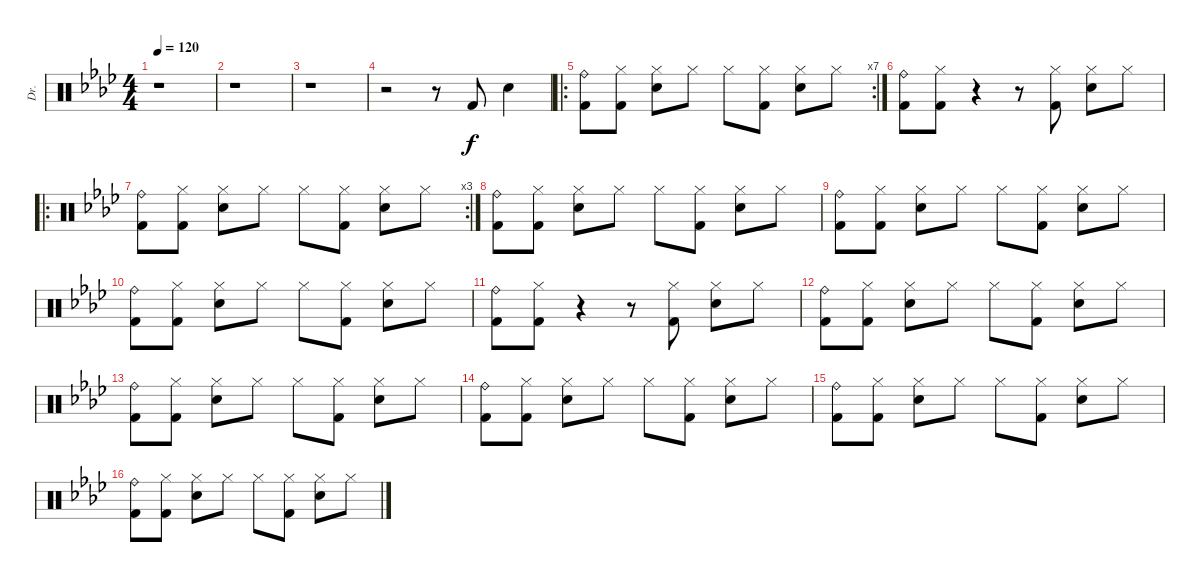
\track ("Dr." "Dr.") {instrument percussion}
\staff {score}
\articulation defaults
\ts (4 4)
\tempo 120
\clef neutral
\ks ab
r.1{dy f} |
r.1 |
r.1 |
r.2 r.8 "Kick (hit) 2".8 "Electric Snare (hit)".4 |
\ro
\rc 7
("Ride (bell)" "Kick (hit) 2").8 ("Hi-Hat (closed)" "Kick (hit) 2").8 ("Hi-Hat (closed)" "Electric Snare (hit)").8 "Hi-Hat (closed)".8 "Hi-Hat (closed)".8 ("Hi-Hat (closed)" "Kick (hit) 2").8 ("Hi-Hat (closed)" "Electric Snare (hit)").8 "Hi-Hat (closed)".8 |
("Ride (bell)" "Kick (hit) 2").8 ("Hi-Hat (closed)" "Kick (hit) 2").8 r.4 r.8 ("Hi-Hat (closed)" "Kick (hit) 2").8 ("Hi-Hat (closed)" "Electric Snare (hit)").8 "Hi-Hat (closed)".8 |
\ro
\rc 3
("Ride (bell)" "Kick (hit) 2").8 ("Hi-Hat (closed)" "Kick (hit) 2").8 ("Hi-Hat (closed)" "Electric Snare (hit)").8 "Hi-Hat (closed)".8 "Hi-Hat (closed)".8 ("Hi-Hat (closed)" "Kick (hit) 2").8 ("Hi-Hat (closed)" "Electric Snare (hit)").8 "Hi-Hat (closed)".8 |
("Ride (bell)" "Kick (hit) 2").8 ("Hi-Hat (closed)" "Kick (hit) 2").8 ("Hi-Hat (closed)" "Electric Snare (hit)").8 "Hi-Hat (closed)".8 "Hi-Hat (closed)".8 ("Hi-Hat (closed)" "Kick (hit) 2").8 ("Hi-Hat (closed)" "Electric Snare (hit)").8 "Hi-Hat (closed)".8 |
("Ride (bell)" "Kick (hit) 2").8 ("Hi-Hat (closed)" "Kick (hit) 2").8 ("Hi-Hat (closed)" "Electric Snare (hit)").8 "Hi-Hat (closed)".8 "Hi-Hat (closed)".8 ("Hi-Hat (closed)" "Kick (hit) 2").8 ("Hi-Hat (closed)" "Electric Snare (hit)").8 "Hi-Hat (closed)".8 |
("Ride (bell)" "Kick (hit) 2").8 ("Hi-Hat (closed)" "Kick (hit) 2").8 ("Hi-Hat (closed)" "Electric Snare (hit)").8 "Hi-Hat (closed)".8 "Hi-Hat (closed)".8 ("Hi-Hat (closed)" "Kick (hit) 2").8 ("Hi-Hat (closed)" "Electric Snare (hit)").8 "Hi-Hat (closed)".8 |
("Ride (bell)" "Kick (hit) 2").8 ("Hi-Hat (closed)" "Kick (hit) 2").8 r.4 r.8 ("Hi-Hat (closed)" "Kick (hit) 2").8 ("Hi-Hat (closed)" "Electric Snare (hit)").8 "Hi-Hat (closed)".8 |
("Ride (bell)" "Kick (hit) 2").8 ("Hi-Hat (closed)" "Kick (hit) 2").8 ("Hi-Hat (closed)" "Electric Snare (hit)").8 "Hi-Hat (closed)".8 "Hi-Hat (closed)".8 ("Hi-Hat (closed)" "Kick (hit) 2").8 ("Hi-Hat (closed)" "Electric Snare (hit)").8 "Hi-Hat (closed)".8 |
("Ride (bell)" "Kick (hit) 2").8 ("Hi-Hat (closed)" "Kick (hit) 2").8 ("Hi-Hat (closed)" "Electric Snare (hit)").8 "Hi-Hat (closed)".8 "Hi-Hat (closed)".8 ("Hi-Hat (closed)" "Kick (hit) 2").8 ("Hi-Hat (closed)" "Electric Snare (hit)").8 "Hi-Hat (closed)".8 |
("Ride (bell)" "Kick (hit) 2").8 ("Hi-Hat (closed)" "Kick (hit) 2").8 ("Hi-Hat (closed)" "Electric Snare (hit)").8 "Hi-Hat (closed)".8 "Hi-Hat (closed)".8 ("Hi-Hat (closed)" "Kick (hit) 2").8 ("Hi-Hat (closed)" "Electric Snare (hit)").8 "Hi-Hat (closed)".8 |
("Ride (bell)" "Kick (hit) 2").8 ("Hi-Hat (closed)" "Kick (hit) 2").8 ("Hi-Hat (closed)" "Electric Snare (hit)").8 "Hi-Hat (closed)".8 "Hi-Hat (closed)".8 ("Hi-Hat (closed)" "Kick (hit) 2").8 ("Hi-Hat (closed)" "Electric Snare (hit)").8 "Hi-Hat (closed)".8 |
("Ride (bell)" "Kick (hit) 2").8 ("Hi-Hat (closed)" "Kick (hit) 2").8 ("Hi-Hat (closed)" "Electric Snare (hit)").8 "Hi-Hat (closed)".8 "Hi-Hat (closed)".8 ("Hi-Hat (closed)" "Kick (hit) 2").8 ("Hi-Hat (closed)" "Electric Snare (hit)").8 "Hi-Hat (closed)".8
